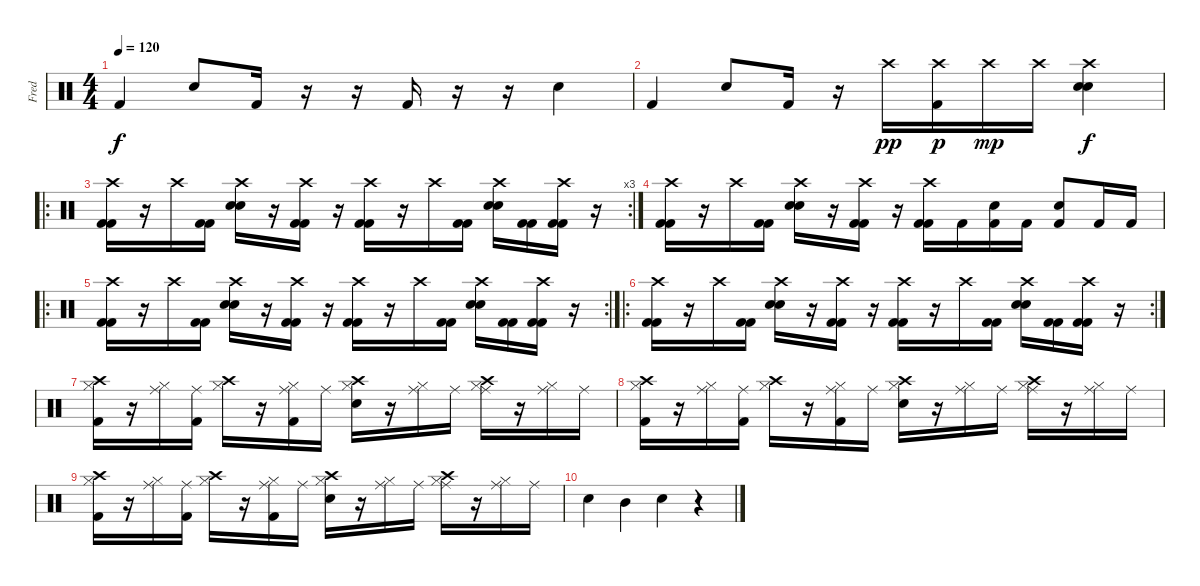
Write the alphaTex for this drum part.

\track ("Fred " "Fred ") {instrument percussion}
\staff {score}
\articulation defaults
\ts (4 4)
\tempo 120
\clef neutral
\ks c "Kick (hit) 2".4{dy f} "Electric Snare (hit)".8 "Kick (hit) 2".16
r.16 r.16 "Kick (hit) 2".16 r.16 r.16 "Electric Snare (hit)".4 |
"Kick (hit) 2".4 "Electric Snare (hit)".8 "Kick (hit) 2".16 r.16 "Crash high (hit)".16{dy pp} ("Crash high (hit)" "Kick (hit) 2").16{dy p} "Crash high (hit)".16{dy mp} "Crash high (hit)".16 ("Crash high (hit)" "Electric Snare (hit)" "Electric Snare (hit)").4{dy f} |
\ro
\rc 3
("Crash high (hit)" "Kick (hit) 2" "Kick (hit) 2").16 r.16 "Crash high (hit)".16 ("Kick (hit) 2" "Kick (hit) 2").16 ("Crash high (hit)" "Electric Snare (hit)" "Electric Snare (hit)").16 r.16 ("Crash high (hit)" "Kick (hit) 2" "Kick (hit) 2").16 r.16 ("Crash high (hit)" "Kick (hit) 2" "Kick (hit) 2").16 r.16 "Crash high (hit)".16 ("Kick (hit) 2" "Kick (hit) 2").16 ("Crash high (hit)" "Electric Snare (hit)" "Electric Snare (hit)").16 ("Kick (hit) 2" "Kick (hit) 2").16 ("Crash high (hit)" "Kick (hit) 2" "Kick (hit) 2").16 r.16 |
("Crash high (hit)" "Kick (hit) 2" "Kick (hit) 2").16 r.16 "Crash high (hit)".16 ("Kick (hit) 2" "Kick (hit) 2").16 ("Crash high (hit)" "Electric Snare (hit)" "Electric Snare (hit)").16 r.16 ("Crash high (hit)" "Kick (hit) 2" "Kick (hit) 2").16 r.16 ("Crash high (hit)" "Kick (hit) 2" "Kick (hit) 2").16 "Kick (hit) 2".16 ("Kick (hit) 2" "Electric Snare (hit)").16 "Kick (hit) 2".16 ("Kick (hit) 2" "Electric Snare (hit)").8 "Kick (hit) 2".16 "Kick (hit) 2".16 |
\ro
\rc 2
("Crash high (hit)" "Kick (hit) 2" "Kick (hit) 2").16 r.16 "Crash high (hit)".16 ("Kick (hit) 2" "Kick (hit) 2").16 ("Crash high (hit)" "Electric Snare (hit)" "Electric Snare (hit)").16 r.16 ("Crash high (hit)" "Kick (hit) 2" "Kick (hit) 2").16 r.16 ("Crash high (hit)" "Kick (hit) 2" "Kick (hit) 2").16 r.16 "Crash high (hit)".16 ("Kick (hit) 2" "Kick (hit) 2").16 ("Crash high (hit)" "Electric Snare (hit)" "Electric Snare (hit)").16 ("Kick (hit) 2" "Kick (hit) 2").16 ("Crash high (hit)" "Kick (hit) 2" "Kick (hit) 2").16 r.16 |
\ro
\rc 2
("Crash high (hit)" "Kick (hit) 2" "Kick (hit) 2").16 r.16 "Crash high (hit)".16 ("Kick (hit) 2" "Kick (hit) 2").16 ("Crash high (hit)" "Electric Snare (hit)" "Electric Snare (hit)").16 r.16 ("Crash high (hit)" "Kick (hit) 2" "Kick (hit) 2").16 r.16 ("Crash high (hit)" "Kick (hit) 2" "Kick (hit) 2").16 r.16 "Crash high (hit)".16 ("Kick (hit) 2" "Kick (hit) 2").16 ("Crash high (hit)" "Electric Snare (hit)" "Electric Snare (hit)").16 ("Kick (hit) 2" "Kick (hit) 2").16 ("Crash high (hit)" "Kick (hit) 2" "Kick (hit) 2").16 r.16 |
("Hi-Hat (closed)" "Crash high (hit)" "Kick (hit) 2").16 r.16 ("Hi-Hat (closed)" "Ride (middle)").16 ("Ride (middle)" "Kick (hit) 2").16 ("Hi-Hat (closed)" "Crash high (hit)").16 r.16 ("Hi-Hat (closed)" "Ride (middle)" "Kick (hit) 2").16 "Ride (middle)".16 ("Hi-Hat (closed)" "Crash high (hit)" "Electric Snare (hit)").16 r.16 ("Hi-Hat (closed)" "Ride (middle)").16 "Ride (middle)".16 ("Hi-Hat (closed)" "Crash high (hit)" "Ride (middle)").16 r.16 ("Hi-Hat (closed)" "Ride (middle)").16 "Ride (middle)".16 |
("Hi-Hat (closed)" "Crash high (hit)" "Kick (hit) 2").16 r.16 ("Hi-Hat (closed)" "Ride (middle)").16 ("Ride (middle)" "Kick (hit) 2").16 ("Hi-Hat (closed)" "Crash high (hit)").16 r.16 ("Hi-Hat (closed)" "Ride (middle)" "Kick (hit) 2").16 "Ride (middle)".16 ("Hi-Hat (closed)" "Crash high (hit)" "Electric Snare (hit)").16 r.16 ("Hi-Hat (closed)" "Ride (middle)").16 "Ride (middle)".16 ("Hi-Hat (closed)" "Crash high (hit)" "Ride (middle)").16 r.16 ("Hi-Hat (closed)" "Ride (middle)").16 "Ride (middle)".16 |
("Hi-Hat (closed)" "Crash high (hit)" "Kick (hit) 2").16 r.16 ("Hi-Hat (closed)" "Ride (middle)").16 ("Ride (middle)" "Kick (hit) 2").16 ("Hi-Hat (closed)" "Crash high (hit)").16 r.16 ("Hi-Hat (closed)" "Ride (middle)" "Kick (hit) 2").16 "Ride (middle)".16 ("Hi-Hat (closed)" "Crash high (hit)" "Electric Snare (hit)").16 r.16 ("Hi-Hat (closed)" "Ride (middle)").16 "Ride (middle)".16 ("Hi-Hat (closed)" "Crash high (hit)" "Ride (middle)").16 r.16 ("Hi-Hat (closed)" "Ride (middle)").16 "Ride (middle)".16 |
"Snare (hit) 2".4 "Mid Tom (hit)".4 "Electric Snare (hit)".4 r.4
